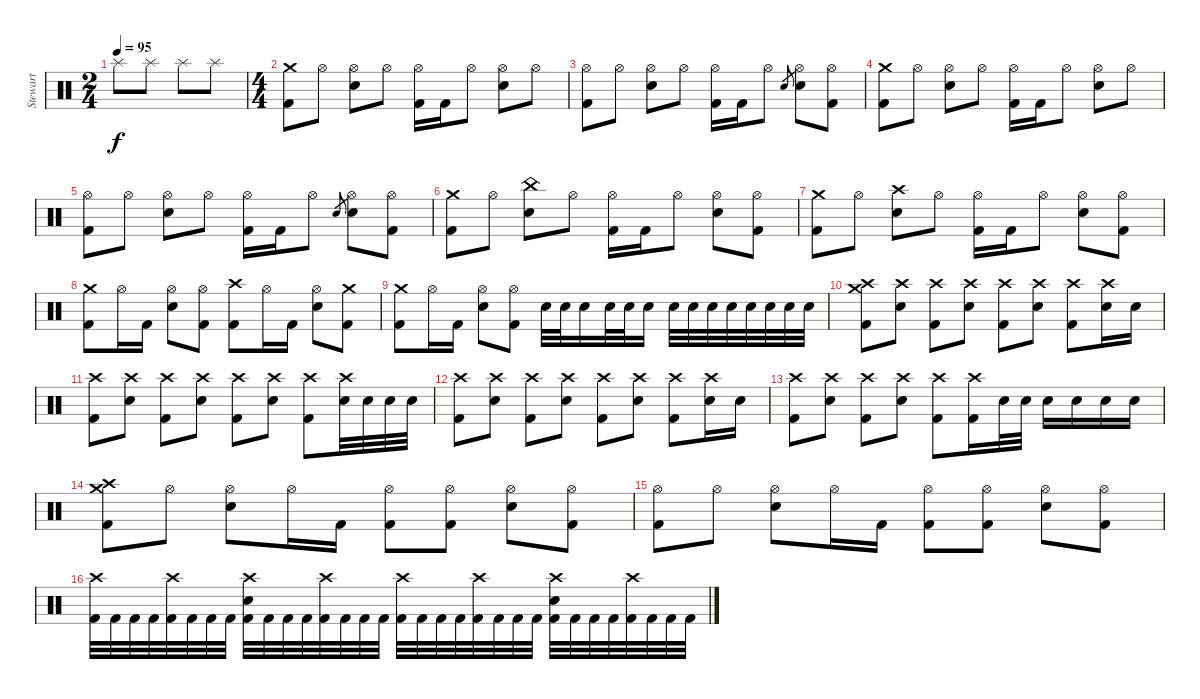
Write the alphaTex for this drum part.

\track ("Stewart" "Stewart") {instrument percussion}
\staff {score}
\articulation defaults
\ts (2 4)
\tempo 95
\clef neutral
\ks c "Splash (hit)".8{dy f} "Splash (hit)".8 "Splash (hit)".8 "Splash (hit)".8
|
\ts (4 4)
("Crash medium (hit)" "Kick (hit) 2").8 "Hi-Hat (open)".8 ("Hi-Hat (open)" "Snare (hit) 2").8 "Hi-Hat (open)".8 ("Hi-Hat (open)" "Kick (hit) 2").16 "Kick (hit) 2".16 "Hi-Hat (open)".8 ("Hi-Hat (open)" "Snare (hit) 2").8 "Hi-Hat (open)".8 |
("Hi-Hat (open)" "Kick (hit) 2").8 "Hi-Hat (open)".8 ("Hi-Hat (open)" "Snare (hit) 2").8 "Hi-Hat (open)".8 ("Hi-Hat (open)" "Kick (hit) 2").16 "Kick (hit) 2".16 "Hi-Hat (open)".8 "Snare (hit) 2".8{gr} ("Hi-Hat (open)" "Snare (hit) 2").8 ("Hi-Hat (open)" "Kick (hit) 2").8 |
("Crash medium (hit)" "Kick (hit) 2").8 "Hi-Hat (open)".8 ("Hi-Hat (open)" "Snare (hit) 2").8 "Hi-Hat (open)".8 ("Hi-Hat (open)" "Kick (hit) 2").16 "Kick (hit) 2".16 "Hi-Hat (open)".8 ("Hi-Hat (open)" "Snare (hit) 2").8 "Hi-Hat (open)".8 |
("Hi-Hat (open)" "Kick (hit) 2").8 "Hi-Hat (open)".8 ("Hi-Hat (open)" "Snare (hit) 2").8 "Hi-Hat (open)".8 ("Hi-Hat (open)" "Kick (hit) 2").16 "Kick (hit) 2".16 "Hi-Hat (open)".8 "Snare (hit) 2".8{gr} ("Hi-Hat (open)" "Snare (hit) 2").8 ("Hi-Hat (open)" "Kick (hit) 2").8 |
("Crash medium (hit)" "Kick (hit) 2").8 "Hi-Hat (open)".8 ("China (hit)" "Snare (hit) 2").8 "Hi-Hat (open)".8 ("Hi-Hat (open)" "Kick (hit) 2").16 "Kick (hit) 2".16 "Hi-Hat (open)".8 ("Hi-Hat (open)" "Snare (hit) 2").8 ("Hi-Hat (open)" "Kick (hit) 2").8 |
("Crash medium (hit)" "Kick (hit) 2").8 "Hi-Hat (open)".8 ("Crash high (hit)" "Snare (hit) 2").8 "Hi-Hat (open)".8 ("Hi-Hat (open)" "Kick (hit) 2").16 "Kick (hit) 2".16 "Hi-Hat (open)".8 ("Hi-Hat (open)" "Snare (hit) 2").8 ("Hi-Hat (open)" "Kick (hit) 2").8 |
("Crash medium (hit)" "Kick (hit) 2").8 "Hi-Hat (open)".16 "Kick (hit) 2".16 ("Hi-Hat (open)" "Snare (hit) 2").8 ("Hi-Hat (open)" "Kick (hit) 2").8 ("Crash high (hit)" "Kick (hit) 2").8 "Hi-Hat (open)".16 "Kick (hit) 2".16 ("Hi-Hat (open)" "Snare (hit) 2").8 ("Crash medium (hit)" "Kick (hit) 2").8 |
("Crash medium (hit)" "Kick (hit) 2").8 "Hi-Hat (open)".16 "Kick (hit) 2".16 ("Hi-Hat (open)" "Snare (hit) 2").8 ("Hi-Hat (open)" "Kick (hit) 2").8 "Snare (hit) 2".32 "Snare (hit) 2".32 "Snare (hit) 2".16 "Snare (hit) 2".32 "Snare (hit) 2".32 "Snare (hit) 2".16 "Snare (hit) 2".32 "Snare (hit) 2".32 "Snare (hit) 2".32 "Snare (hit) 2".32 "Snare (hit) 2".32 "Snare (hit) 2".32 "Snare (hit) 2".32 "Snare (hit) 2".32 |
("Crash high (hit)" "Kick (hit) 2" "Crash medium (hit)").8 ("Crash high (hit)" "Snare (hit) 2").8 ("Crash high (hit)" "Kick (hit) 2").8 ("Crash high (hit)" "Snare (hit) 2").8 ("Crash high (hit)" "Kick (hit) 2").8 ("Crash high (hit)" "Snare (hit) 2").8 ("Crash high (hit)" "Kick (hit) 2").8 ("Crash high (hit)" "Snare (hit) 2").16 "Snare (hit) 2".16 |
("Crash high (hit)" "Kick (hit) 2").8 ("Crash high (hit)" "Snare (hit) 2").8 ("Crash high (hit)" "Kick (hit) 2").8 ("Crash high (hit)" "Snare (hit) 2").8 ("Crash high (hit)" "Kick (hit) 2").8 ("Crash high (hit)" "Snare (hit) 2").8 ("Crash high (hit)" "Kick (hit) 2").8 ("Crash high (hit)" "Snare (hit) 2").32 "Snare (hit) 2".32 "Snare (hit) 2".32 "Snare (hit) 2".32 |
("Crash high (hit)" "Kick (hit) 2").8 ("Crash high (hit)" "Snare (hit) 2").8 ("Crash high (hit)" "Kick (hit) 2").8 ("Crash high (hit)" "Snare (hit) 2").8 ("Crash high (hit)" "Kick (hit) 2").8 ("Crash high (hit)" "Snare (hit) 2").8 ("Crash high (hit)" "Kick (hit) 2").8 ("Crash high (hit)" "Snare (hit) 2").16 "Snare (hit) 2".16 |
("Crash high (hit)" "Kick (hit) 2").8 ("Crash high (hit)" "Snare (hit) 2").8 ("Crash high (hit)" "Kick (hit) 2").8 ("Crash high (hit)" "Snare (hit) 2").8 ("Crash high (hit)" "Kick (hit) 2").8 ("Crash high (hit)" "Kick (hit) 2").16 "Snare (hit) 2".32 "Snare (hit) 2".32 "Snare (hit) 2".16 "Snare (hit) 2".16 "Snare (hit) 2".16 "Snare (hit) 2".16 |
("Crash high (hit)" "Kick (hit) 2" "Crash medium (hit)").8 "Hi-Hat (open)".8 ("Hi-Hat (open)" "Snare (hit) 2").8 "Hi-Hat (open)".16 "Kick (hit) 2".16 ("Hi-Hat (open)" "Kick (hit) 2").8 ("Hi-Hat (open)" "Kick (hit) 2").8 ("Hi-Hat (open)" "Snare (hit) 2").8 ("Hi-Hat (open)" "Kick (hit) 2").8 |
("Hi-Hat (open)" "Kick (hit) 2").8 "Hi-Hat (open)".8 ("Hi-Hat (open)" "Snare (hit) 2").8 "Hi-Hat (open)".16 "Kick (hit) 2".16 ("Hi-Hat (open)" "Kick (hit) 2").8 ("Hi-Hat (open)" "Kick (hit) 2").8 ("Hi-Hat (open)" "Snare (hit) 2").8 ("Hi-Hat (open)" "Kick (hit) 2").8 |
("Crash high (hit)" "Kick (hit) 2").32 "Kick (hit) 2".32 "Kick (hit) 2".32 "Kick (hit) 2".32 ("Crash high (hit)" "Kick (hit) 2").32 "Kick (hit) 2".32 "Kick (hit) 2".32 "Kick (hit) 2".32 ("Crash high (hit)" "Snare (hit) 2" "Kick (hit) 2").32 "Kick (hit) 2".32 "Kick (hit) 2".32 "Kick (hit) 2".32 ("Crash high (hit)" "Kick (hit) 2").32 "Kick (hit) 2".32 "Kick (hit) 2".32 "Kick (hit) 2".32 ("Crash high (hit)" "Kick (hit) 2").32 "Kick (hit) 2".32 "Kick (hit) 2".32 "Kick (hit) 2".32 ("Crash high (hit)" "Kick (hit) 2").32 "Kick (hit) 2".32 "Kick (hit) 2".32 "Kick (hit) 2".32 ("Crash high (hit)" "Snare (hit) 2" "Kick (hit) 2").32 "Kick (hit) 2".32 "Kick (hit) 2".32 "Kick (hit) 2".32 ("Crash high (hit)" "Kick (hit) 2").32 "Kick (hit) 2".32 "Kick (hit) 2".32 "Kick (hit) 2".32
